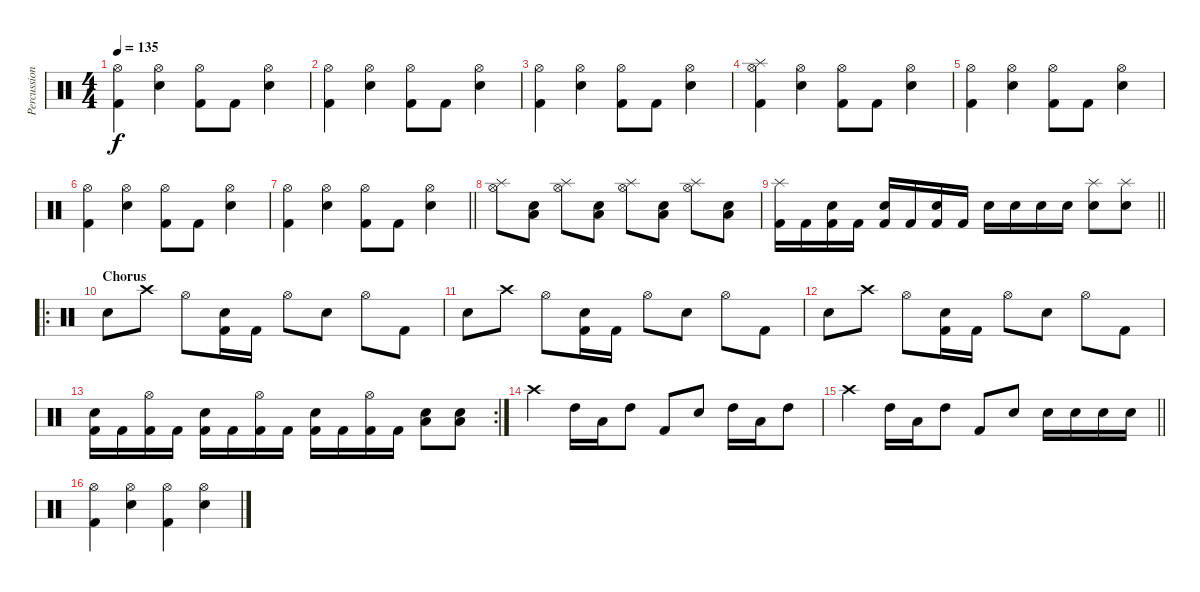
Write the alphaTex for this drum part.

\track ("Percussion" "Percussion") {instrument percussion}
\staff {score}
\articulation defaults
\ts (4 4)
\tempo 135
\clef neutral
\ks c
("Hi-Hat (open)" "Kick (hit) 2").4{dy f} ("Hi-Hat (open)" "Snare (hit) 2").4 ("Hi-Hat (open)" "Kick (hit) 2").8 "Kick (hit) 2".8 ("Hi-Hat (open)" "Snare (hit) 2").4 |
("Hi-Hat (open)" "Kick (hit) 2").4 ("Hi-Hat (open)" "Snare (hit) 2").4 ("Hi-Hat (open)" "Kick (hit) 2").8 "Kick (hit) 2".8 ("Hi-Hat (open)" "Snare (hit) 2").4 |
("Hi-Hat (open)" "Kick (hit) 2").4 ("Hi-Hat (open)" "Snare (hit) 2").4 ("Hi-Hat (open)" "Kick (hit) 2").8 "Kick (hit) 2".8 ("Hi-Hat (open)" "Snare (hit) 2").4 |
("Splash (hit)" "Hi-Hat (open)" "Kick (hit) 2").4 ("Hi-Hat (open)" "Snare (hit) 2").4 ("Hi-Hat (open)" "Kick (hit) 2").8 "Kick (hit) 2".8 ("Hi-Hat (open)" "Snare (hit) 2").4 |
("Hi-Hat (open)" "Kick (hit) 2").4 ("Hi-Hat (open)" "Snare (hit) 2").4 ("Hi-Hat (open)" "Kick (hit) 2").8 "Kick (hit) 2".8 ("Hi-Hat (open)" "Snare (hit) 2").4 |
("Hi-Hat (open)" "Kick (hit) 2").4 ("Hi-Hat (open)" "Snare (hit) 2").4 ("Hi-Hat (open)" "Kick (hit) 2").8 "Kick (hit) 2".8 ("Hi-Hat (open)" "Snare (hit) 2").4 |
\barLineRight lightlight
("Hi-Hat (open)" "Kick (hit) 2").4 ("Hi-Hat (open)" "Snare (hit) 2").4 ("Hi-Hat (open)" "Kick (hit) 2").8 "Kick (hit) 2".8 ("Hi-Hat (open)" "Snare (hit) 2").4 |
("Splash (hit)" "Hi-Hat (open)").8 ("Low Floor Tom (hit)" "Snare (hit) 2").8 ("Splash (hit)" "Hi-Hat (open)").8 ("Low Floor Tom (hit)" "Snare (hit) 2").8 ("Splash (hit)" "Hi-Hat (open)").8 ("Low Floor Tom (hit)" "Snare (hit) 2").8 ("Splash (hit)" "Hi-Hat (open)").8 ("Low Floor Tom (hit)" "Snare (hit) 2").8 |
\barLineRight lightlight
("Splash (hit)" "Kick (hit) 2").16 "Kick (hit) 2".16 ("Snare (hit) 2" "Kick (hit) 2").16 "Kick (hit) 2".16 ("Snare (hit) 2" "Kick (hit) 2").16 "Kick (hit) 2".16 ("Snare (hit) 2" "Kick (hit) 2").16 "Kick (hit) 2".16 "Snare (hit) 2".16 "Snare (hit) 2".16 "Snare (hit) 2".16 "Snare (hit) 2".16 ("Splash (hit)" "Snare (hit) 2").8 ("Splash (hit)" "Snare (hit) 2").8 |
\ro
\section ("" "Chorus")
"Snare (hit) 2".8 "Crash high (hit)".8 "Hi-Hat (open)".8 ("Snare (hit) 2" "Kick (hit) 2").16 "Kick (hit) 2".16 "Hi-Hat (open)".8 "Snare (hit) 2".8 "Hi-Hat (open)".8 "Kick (hit) 2".8 |
"Snare (hit) 2".8 "Crash high (hit)".8 "Hi-Hat (open)".8 ("Snare (hit) 2" "Kick (hit) 2").16 "Kick (hit) 2".16 "Hi-Hat (open)".8 "Snare (hit) 2".8 "Hi-Hat (open)".8 "Kick (hit) 2".8 |
"Snare (hit) 2".8 "Crash high (hit)".8 "Hi-Hat (open)".8 ("Snare (hit) 2" "Kick (hit) 2").16 "Kick (hit) 2".16 "Hi-Hat (open)".8 "Snare (hit) 2".8 "Hi-Hat (open)".8 "Kick (hit) 2".8 |
\rc 2
("Snare (hit) 2" "Kick (hit) 2").16 "Kick (hit) 2".16 ("Hi-Hat (open)" "Kick (hit) 2").16 "Kick (hit) 2".16 ("Snare (hit) 2" "Kick (hit) 2").16 "Kick (hit) 2".16 ("Hi-Hat (open)" "Kick (hit) 2").16 "Kick (hit) 2".16 ("Snare (hit) 2" "Kick (hit) 2").16 "Kick (hit) 2".16 ("Hi-Hat (open)" "Kick (hit) 2").16 "Kick (hit) 2".16 ("Low Floor Tom (hit)" "Snare (hit) 2").8 ("Low Floor Tom (hit)" "Snare (hit) 2").8 |
"Crash high (hit)".4 "High Tom (hit)".16 "Low Tom (hit)".16 "High Tom (hit)".8 "Kick (hit) 2".8 "Snare (hit) 2".8 "High Tom (hit)".16 "Low Tom (hit)".16 "High Tom (hit)".8 |
\barLineRight lightlight "Crash high (hit)".4 "High Tom (hit)".16 "Low Tom (hit)".16 "High Tom (hit)".8 "Kick (hit) 2".8 "Snare (hit) 2".8 "Snare (hit) 2".16 "Snare (hit) 2".16 "Snare (hit) 2".16 "Snare (hit) 2".16
|
("Hi-Hat (open)" "Kick (hit) 2").4 ("Hi-Hat (open)" "Snare (hit) 2").4 ("Hi-Hat (open)" "Kick (hit) 2").4 ("Hi-Hat (open)" "Snare (hit) 2").4
